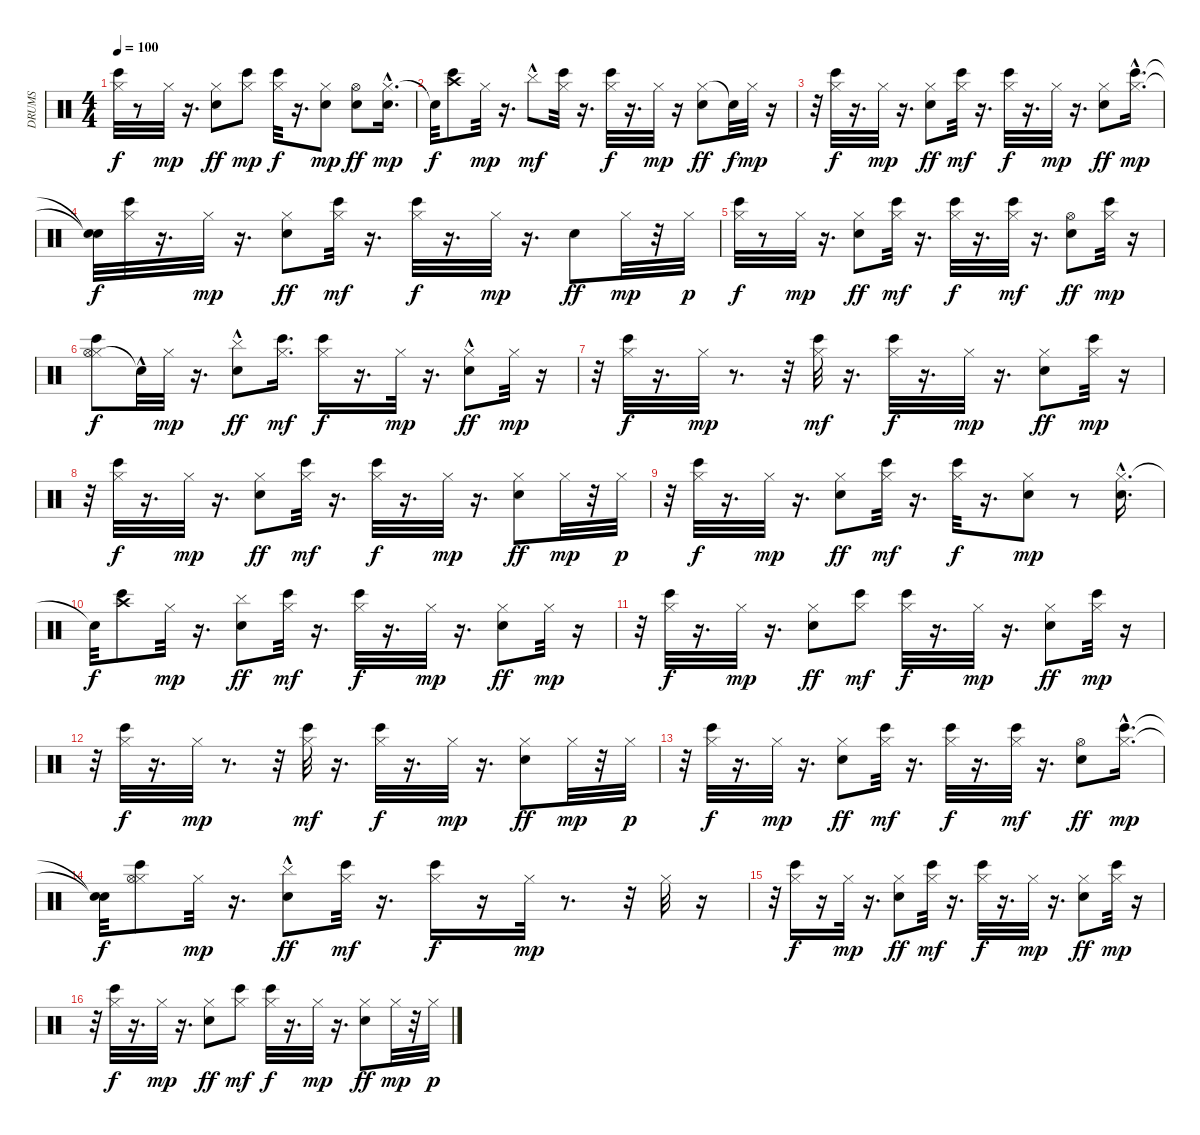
\track ("DRUMS" "DRUMS") {instrument percussion}
\staff {score}
\articulation defaults
\ts (4 4)
\tempo 100
\clef neutral
\ks c
("Hi-Hat (closed)" "Bongo High (hit)").32{dy f} r.8 "Hi-Hat (closed)".32{dy mp} r.16{d} ("Hi-Hat (closed)" "Electric Snare (hit)").8{dy ff} ("Bongo High (hit)" "Hi-Hat (closed)").8{dy mp} ("Hi-Hat (closed)" "Bongo High (hit)").32{dy f} r.16{d} ("Hi-Hat (closed)" "Electric Snare (hit)").8{dy mp} ("Electric Snare (hit)" "Hi-Hat (open)").8{dy ff} ("Hi-Hat (closed)" "Electric Snare (hit)"{hac}).16{d dy mp} |
"Snare (hit)"{t}.32{dy f} ("Crash high (hit)" "Bongo High (hit)").8 "Hi-Hat (closed)".32{dy mp} r.16{d} "Cymbal (hit)"{hac}.8{dy mf} ("Hi-Hat (closed)" "Bongo High (hit)").32 r.16{d} ("Bongo High (hit)" "Hi-Hat (closed)").32{dy f} r.16{d} "Hi-Hat (closed)".32{dy mp} r.16 ("Hi-Hat (closed)" "Electric Snare (hit)").8{dy ff} "Snare (hit)"{t}.32{dy f} "Hi-Hat (closed)".32{dy mp} r.16 |
r.32 ("Bongo High (hit)" "Hi-Hat (closed)").32{dy f} r.16{d} "Hi-Hat (closed)".32{dy mp} r.16{d} ("Hi-Hat (closed)" "Electric Snare (hit)").8{dy ff} ("Hi-Hat (closed)" "Bongo High (hit)").32{dy mf} r.16{d} ("Hi-Hat (closed)" "Bongo High (hit)").32{dy f} r.16{d} "Hi-Hat (closed)".32{dy mp} r.16{d} ("Hi-Hat (closed)" "Electric Snare (hit)").8{dy ff} ("Hi-Hat (closed)"{hac} "Bongo High (hit)"{hac}).16{d dy mp} |
("Snare (hit)"{t} "Snare (hit)"{t}).32{dy f} ("Bongo High (hit)" "Hi-Hat (closed)").32 r.16{d} "Hi-Hat (closed)".32{dy mp} r.16{d} ("Hi-Hat (closed)" "Electric Snare (hit)").8{dy ff} ("Hi-Hat (closed)" "Bongo High (hit)").32{dy mf} r.16{d} ("Hi-Hat (closed)" "Bongo High (hit)").32{dy f} r.16{d} "Hi-Hat (closed)".32{dy mp} r.16{d} "Electric Snare (hit)".8{dy ff} "Hi-Hat (closed)".32{dy mp} r.32 "Hi-Hat (closed)".32{dy p} |
("Hi-Hat (closed)" "Bongo High (hit)").32{dy f} r.8 "Hi-Hat (closed)".32{dy mp} r.16{d} ("Electric Snare (hit)" "Hi-Hat (closed)").8{dy ff} ("Hi-Hat (closed)" "Bongo High (hit)").32{dy mf} r.16{d} ("Hi-Hat (closed)" "Bongo High (hit)").32{dy f} r.16{d} ("Hi-Hat (closed)" "Bongo High (hit)").32{dy mf} r.16{d} ("Hi-Hat (open)" "Electric Snare (hit)").8{dy ff} ("Hi-Hat (closed)" "Bongo High (hit)").32{dy mp} r.16 |
("Hi-Hat (closed)" "Hi-Hat (open)" "Bongo High (hit)").8{dy f} "Snare (hit)"{hac t}.32 "Hi-Hat (closed)".32{dy mp} r.16{d} ("Cymbal (hit)"{hac} "Electric Snare (hit)").8{dy ff} ("Hi-Hat (closed)" "Bongo High (hit)").16{d dy mf} ("Hi-Hat (closed)" "Bongo High (hit)").16{dy f} r.16{d} "Hi-Hat (closed)".32{dy mp} r.16{d} ("Hi-Hat (closed)" "Electric Snare (hit)"{hac}).8{dy ff} "Hi-Hat (closed)".32{dy mp} r.16 |
r.32 ("Bongo High (hit)" "Hi-Hat (closed)").32{dy f} r.16{d} "Hi-Hat (closed)".32{dy mp} r.8{d} r.32 ("Hi-Hat (closed)" "Bongo High (hit)").32{dy mf} r.16{d} ("Bongo High (hit)" "Hi-Hat (closed)").32{dy f} r.16{d} "Hi-Hat (closed)".32{dy mp} r.16{d} ("Hi-Hat (closed)" "Electric Snare (hit)").8{dy ff} ("Hi-Hat (closed)" "Bongo High (hit)").32{dy mp} r.16 |
r.32 ("Hi-Hat (closed)" "Bongo High (hit)").32{dy f} r.16{d} "Hi-Hat (closed)".32{dy mp} r.16{d} ("Hi-Hat (closed)" "Electric Snare (hit)").8{dy ff} ("Hi-Hat (closed)" "Bongo High (hit)").32{dy mf} r.16{d} ("Hi-Hat (closed)" "Bongo High (hit)").32{dy f} r.16{d} "Hi-Hat (closed)".32{dy mp} r.16{d} ("Hi-Hat (closed)" "Electric Snare (hit)").8{dy ff} "Hi-Hat (closed)".32{dy mp} r.32 "Hi-Hat (closed)".32{dy p} |
r.32 ("Bongo High (hit)" "Hi-Hat (closed)").32{dy f} r.16{d} "Hi-Hat (closed)".32{dy mp} r.16{d} ("Hi-Hat (closed)" "Electric Snare (hit)").8{dy ff} ("Hi-Hat (closed)" "Bongo High (hit)").32{dy mf} r.16{d} ("Hi-Hat (closed)" "Bongo High (hit)").32{dy f} r.16{d} ("Electric Snare (hit)" "Hi-Hat (closed)").8{dy mp} r.8 ("Hi-Hat (closed)" "Electric Snare (hit)"{hac}).16{d} |
"Snare (hit)"{t}.32{dy f} ("Crash high (hit)" "Bongo High (hit)").8 "Hi-Hat (closed)".32{dy mp} r.16{d} ("Cymbal (hit)" "Electric Snare (hit)").8{dy ff} ("Hi-Hat (closed)" "Bongo High (hit)").32{dy mf} r.16{d} ("Hi-Hat (closed)" "Bongo High (hit)").32{dy f} r.16{d} "Hi-Hat (closed)".32{dy mp} r.16{d} ("Hi-Hat (closed)" "Electric Snare (hit)").8{dy ff} "Hi-Hat (closed)".32{dy mp} r.16 |
r.32 ("Hi-Hat (closed)" "Bongo High (hit)").32{dy f} r.16{d} "Hi-Hat (closed)".32{dy mp} r.16{d} ("Hi-Hat (closed)" "Electric Snare (hit)").8{dy ff} ("Hi-Hat (closed)" "Bongo High (hit)").8{dy mf} ("Hi-Hat (closed)" "Bongo High (hit)").32{dy f} r.16{d} "Hi-Hat (closed)".32{dy mp} r.16{d} ("Hi-Hat (closed)" "Electric Snare (hit)").8{dy ff} ("Hi-Hat (closed)" "Bongo High (hit)").32{dy mp} r.16 |
r.32 ("Hi-Hat (closed)" "Bongo High (hit)").32{dy f} r.16{d} "Hi-Hat (closed)".32{dy mp} r.8{d} r.32 ("Hi-Hat (closed)" "Bongo High (hit)").32{dy mf} r.16{d} ("Hi-Hat (closed)" "Bongo High (hit)").32{dy f} r.16{d} "Hi-Hat (closed)".32{dy mp} r.16{d} ("Hi-Hat (closed)" "Electric Snare (hit)").8{dy ff} "Hi-Hat (closed)".32{dy mp} r.32 "Hi-Hat (closed)".32{dy p} |
r.32 ("Hi-Hat (closed)" "Bongo High (hit)").32{dy f} r.16{d} "Hi-Hat (closed)".32{dy mp} r.16{d} ("Hi-Hat (closed)" "Electric Snare (hit)").8{dy ff} ("Hi-Hat (closed)" "Bongo High (hit)").32{dy mf} r.16{d} ("Hi-Hat (closed)" "Bongo High (hit)").32{dy f} r.16{d} ("Hi-Hat (closed)" "Bongo High (hit)").32{dy mf} r.16{d} ("Hi-Hat (open)" "Electric Snare (hit)").8{dy ff} ("Hi-Hat (closed)"{hac} "Bongo High (hit)"{hac}).16{d dy mp} |
("Snare (hit)"{t} "Snare (hit)"{t}).32{dy f} ("Hi-Hat (closed)" "Hi-Hat (open)" "Bongo High (hit)").8 "Hi-Hat (closed)".32{dy mp} r.16{d} ("Cymbal (hit)"{hac} "Electric Snare (hit)").8{dy ff} ("Hi-Hat (closed)" "Bongo High (hit)").32{dy mf} r.16{d} ("Hi-Hat (closed)" "Bongo High (hit)").16{dy f} r.16 "Hi-Hat (closed)".32{dy mp} r.8{d} r.32 "Hi-Hat (closed)".32 r.16 |
r.32 ("Hi-Hat (closed)" "Bongo High (hit)").16{dy f} r.16 "Hi-Hat (closed)".32{dy mp} r.16{d} ("Electric Snare (hit)" "Hi-Hat (closed)").8{dy ff} ("Hi-Hat (closed)" "Bongo High (hit)").32{dy mf} r.16{d} ("Hi-Hat (closed)" "Bongo High (hit)").32{dy f} r.16{d} "Hi-Hat (closed)".32{dy mp} r.16{d} ("Hi-Hat (closed)" "Electric Snare (hit)").8{dy ff} ("Bongo High (hit)" "Hi-Hat (closed)").32{dy mp} r.16 |
r.32 ("Bongo High (hit)" "Hi-Hat (closed)").32{dy f} r.16{d} "Hi-Hat (closed)".32{dy mp} r.16{d} ("Hi-Hat (closed)" "Electric Snare (hit)").8{dy ff} ("Hi-Hat (closed)" "Bongo High (hit)").8{dy mf} ("Hi-Hat (closed)" "Bongo High (hit)").32{dy f} r.16{d} "Hi-Hat (closed)".32{dy mp} r.16{d} ("Hi-Hat (closed)" "Electric Snare (hit)").8{dy ff} "Hi-Hat (closed)".32{dy mp} r.32 "Hi-Hat (closed)".32{dy p}
